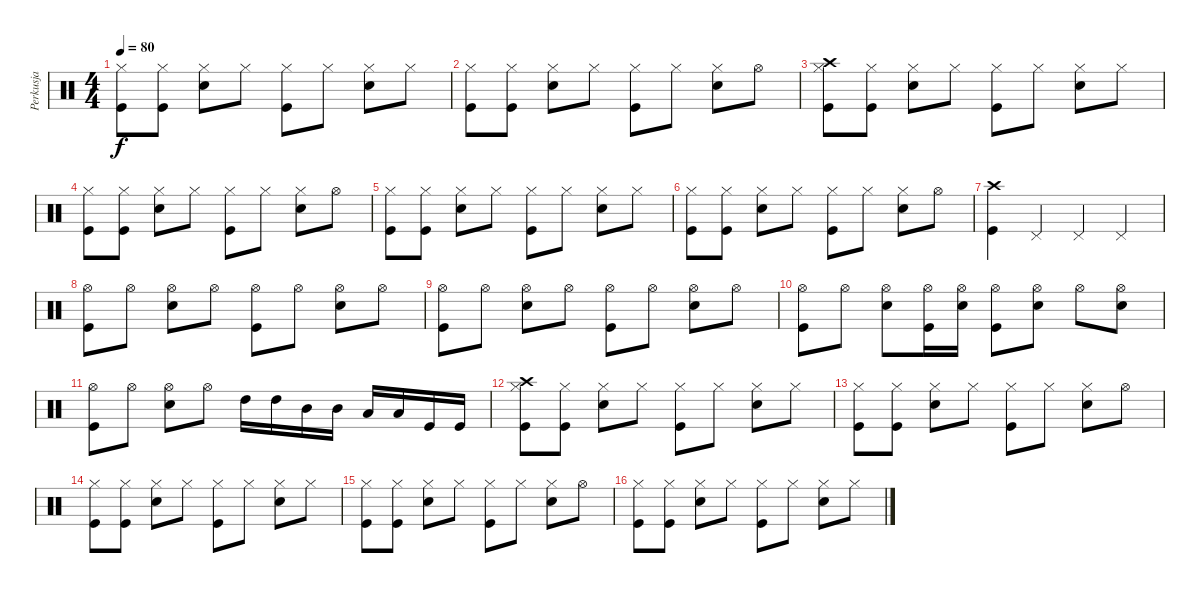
\track ("Perkusja" "Perkusja") {instrument percussion}
\staff {score}
\articulation defaults
\ts (4 4)
\tempo 80
\clef neutral
\ks c
("Hi-Hat (closed)" "Kick (hit)").8{dy f} ("Hi-Hat (closed)" "Kick (hit)").8 ("Hi-Hat (closed)" "Metronome (bell)").8 "Hi-Hat (closed)".8 ("Hi-Hat (closed)" "Kick (hit)").8 "Hi-Hat (closed)".8 ("Hi-Hat (closed)" "Metronome (bell)").8 "Hi-Hat (closed)".8 |
("Hi-Hat (closed)" "Kick (hit)").8 ("Hi-Hat (closed)" "Kick (hit)").8 ("Hi-Hat (closed)" "Metronome (bell)").8 "Hi-Hat (closed)".8 ("Hi-Hat (closed)" "Kick (hit)").8 "Hi-Hat (closed)".8 ("Hi-Hat (closed)" "Metronome (bell)").8 "Hi-Hat (open)".8 |
("Hi-Hat (closed)" "Crash high (hit)" "Kick (hit)").8 ("Hi-Hat (closed)" "Kick (hit)").8 ("Hi-Hat (closed)" "Metronome (bell)").8 "Hi-Hat (closed)".8 ("Hi-Hat (closed)" "Kick (hit)").8 "Hi-Hat (closed)".8 ("Hi-Hat (closed)" "Metronome (bell)").8 "Hi-Hat (closed)".8 |
("Hi-Hat (closed)" "Kick (hit)").8 ("Hi-Hat (closed)" "Kick (hit)").8 ("Hi-Hat (closed)" "Metronome (bell)").8 "Hi-Hat (closed)".8 ("Hi-Hat (closed)" "Kick (hit)").8 "Hi-Hat (closed)".8 ("Hi-Hat (closed)" "Metronome (bell)").8 "Hi-Hat (open)".8 |
("Hi-Hat (closed)" "Kick (hit)").8 ("Hi-Hat (closed)" "Kick (hit)").8 ("Hi-Hat (closed)" "Metronome (bell)").8 "Hi-Hat (closed)".8 ("Hi-Hat (closed)" "Kick (hit)").8 "Hi-Hat (closed)".8 ("Hi-Hat (closed)" "Metronome (bell)").8 "Hi-Hat (closed)".8 |
("Hi-Hat (closed)" "Kick (hit)").8 ("Hi-Hat (closed)" "Kick (hit)").8 ("Hi-Hat (closed)" "Metronome (bell)").8 "Hi-Hat (closed)".8 ("Hi-Hat (closed)" "Kick (hit)").8 "Hi-Hat (closed)".8 ("Hi-Hat (closed)" "Metronome (bell)").8 "Hi-Hat (open)".8 |
("Crash high (hit)" "Kick (hit)").4 "Pedal Hi-Hat (hit)".4 "Pedal Hi-Hat (hit)".4 "Pedal Hi-Hat (hit)".4 |
("Hi-Hat (open)" "Kick (hit)").8 "Hi-Hat (open)".8 ("Hi-Hat (open)" "Metronome (bell)").8 "Hi-Hat (open)".8 ("Hi-Hat (open)" "Kick (hit)").8 "Hi-Hat (open)".8 ("Hi-Hat (open)" "Metronome (bell)").8 "Hi-Hat (open)".8 |
("Hi-Hat (open)" "Kick (hit)").8 "Hi-Hat (open)".8 ("Hi-Hat (open)" "Metronome (bell)").8 "Hi-Hat (open)".8 ("Hi-Hat (open)" "Kick (hit)").8 "Hi-Hat (open)".8 ("Hi-Hat (open)" "Metronome (bell)").8 "Hi-Hat (open)".8 |
("Hi-Hat (open)" "Kick (hit)").8 "Hi-Hat (open)".8 ("Hi-Hat (open)" "Metronome (bell)").8 ("Hi-Hat (open)" "Kick (hit)").16 ("Hi-Hat (open)" "Metronome (bell)").16 ("Hi-Hat (open)" "Kick (hit)").8 ("Hi-Hat (open)" "Metronome (bell)").8 "Hi-Hat (open)".8 ("Hi-Hat (open)" "Metronome (bell)").8 |
("Hi-Hat (open)" "Kick (hit)").8 "Hi-Hat (open)".8 ("Hi-Hat (open)" "Metronome (bell)").8 "Hi-Hat (open)".8 "High Tom (hit)".16 "High Tom (hit)".16 "Mid Tom (hit)".16 "Mid Tom (hit)".16 "Low Tom (hit)".16 "Low Tom (hit)".16 "Kick (hit)".16 "Kick (hit)".16 |
("Hi-Hat (closed)" "Crash high (hit)" "Kick (hit)").8 ("Hi-Hat (closed)" "Kick (hit)").8 ("Hi-Hat (closed)" "Metronome (bell)").8 "Hi-Hat (closed)".8 ("Hi-Hat (closed)" "Kick (hit)").8 "Hi-Hat (closed)".8 ("Hi-Hat (closed)" "Metronome (bell)").8 "Hi-Hat (closed)".8 |
("Hi-Hat (closed)" "Kick (hit)").8 ("Hi-Hat (closed)" "Kick (hit)").8 ("Hi-Hat (closed)" "Metronome (bell)").8 "Hi-Hat (closed)".8 ("Hi-Hat (closed)" "Kick (hit)").8 "Hi-Hat (closed)".8 ("Hi-Hat (closed)" "Metronome (bell)").8 "Hi-Hat (open)".8 |
("Hi-Hat (closed)" "Kick (hit)").8 ("Hi-Hat (closed)" "Kick (hit)").8 ("Hi-Hat (closed)" "Metronome (bell)").8 "Hi-Hat (closed)".8 ("Hi-Hat (closed)" "Kick (hit)").8 "Hi-Hat (closed)".8 ("Hi-Hat (closed)" "Metronome (bell)").8 "Hi-Hat (closed)".8 |
("Hi-Hat (closed)" "Kick (hit)").8 ("Hi-Hat (closed)" "Kick (hit)").8 ("Hi-Hat (closed)" "Metronome (bell)").8 "Hi-Hat (closed)".8 ("Hi-Hat (closed)" "Kick (hit)").8 "Hi-Hat (closed)".8 ("Hi-Hat (closed)" "Metronome (bell)").8 "Hi-Hat (open)".8 |
("Hi-Hat (closed)" "Kick (hit)").8 ("Hi-Hat (closed)" "Kick (hit)").8 ("Hi-Hat (closed)" "Metronome (bell)").8 "Hi-Hat (closed)".8 ("Hi-Hat (closed)" "Kick (hit)").8 "Hi-Hat (closed)".8 ("Hi-Hat (closed)" "Metronome (bell)").8 "Hi-Hat (closed)".8
